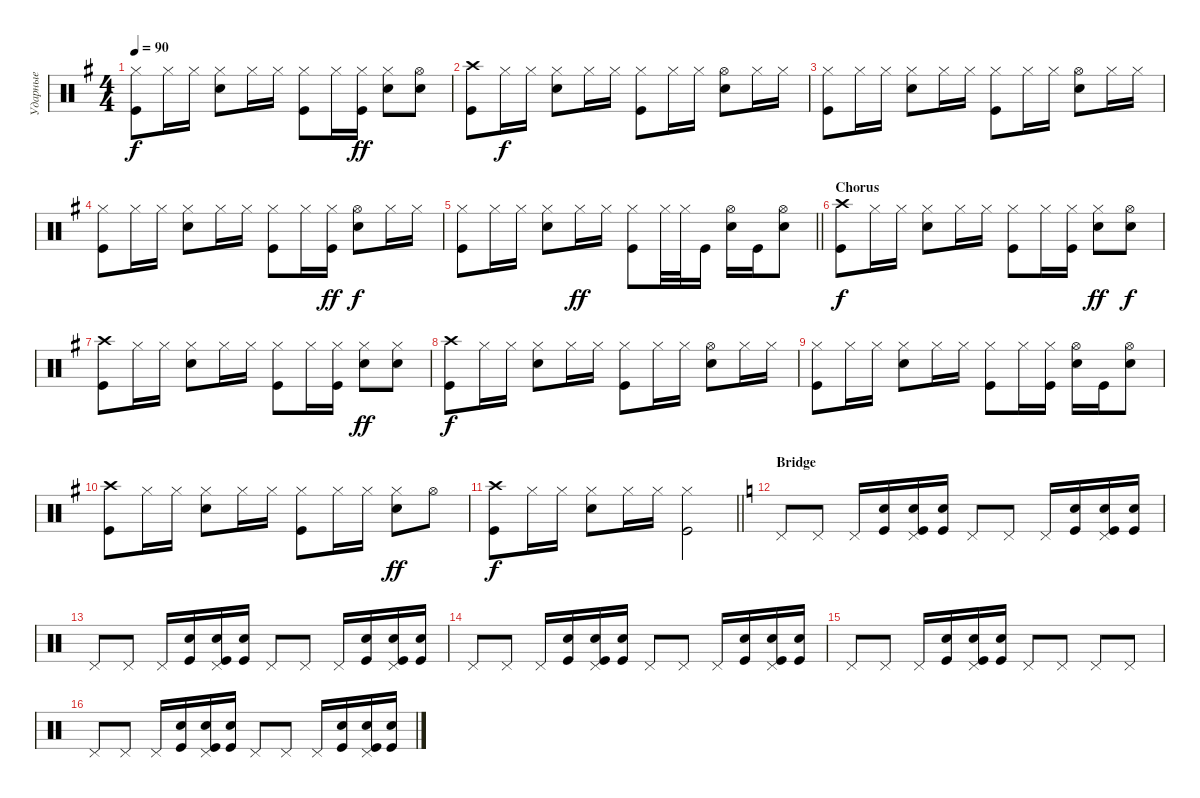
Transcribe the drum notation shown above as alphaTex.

\track ("Ударные" "Ударные") {instrument percussion}
\staff {score}
\articulation defaults
\ts (4 4)
\tempo 90
\clef neutral
\ks eminor
("Hi-Hat (closed)" "Kick (hit)").8{dy f} "Hi-Hat (closed)".16 "Hi-Hat (closed)".16 ("Hi-Hat (closed)" "Snare (hit) 2").8 "Hi-Hat (closed)".16 "Hi-Hat (closed)".16 ("Hi-Hat (closed)" "Kick (hit)").8 "Hi-Hat (closed)".16 ("Hi-Hat (closed)" "Kick (hit)").16{dy ff} ("Snare (hit) 2" "Hi-Hat (closed)").8 ("Snare (hit) 2" "Hi-Hat (open)").8 |
("Crash high (hit)" "Kick (hit)").8 "Hi-Hat (closed)".16{dy f} "Hi-Hat (closed)".16 ("Hi-Hat (closed)" "Snare (hit) 2").8 "Hi-Hat (closed)".16 "Hi-Hat (closed)".16 ("Hi-Hat (closed)" "Kick (hit)").8 "Hi-Hat (closed)".16 "Hi-Hat (closed)".16 ("Snare (hit) 2" "Hi-Hat (open)").8 "Hi-Hat (closed)".16 "Hi-Hat (closed)".16 |
("Hi-Hat (closed)" "Kick (hit)").8 "Hi-Hat (closed)".16 "Hi-Hat (closed)".16 ("Hi-Hat (closed)" "Snare (hit) 2").8 "Hi-Hat (closed)".16 "Hi-Hat (closed)".16 ("Hi-Hat (closed)" "Kick (hit)").8 "Hi-Hat (closed)".16 "Hi-Hat (closed)".16 ("Snare (hit) 2" "Hi-Hat (open)").8 "Hi-Hat (closed)".16 "Hi-Hat (closed)".16 |
("Hi-Hat (closed)" "Kick (hit)").8 "Hi-Hat (closed)".16 "Hi-Hat (closed)".16 ("Hi-Hat (closed)" "Snare (hit) 2").8 "Hi-Hat (closed)".16 "Hi-Hat (closed)".16 ("Hi-Hat (closed)" "Kick (hit)").8 "Hi-Hat (closed)".16 ("Hi-Hat (closed)" "Kick (hit)").16{dy ff} ("Snare (hit) 2" "Hi-Hat (open)").8{dy f} "Hi-Hat (closed)".16 "Hi-Hat (closed)".16 |
\barLineRight lightlight
("Hi-Hat (closed)" "Kick (hit)").8 "Hi-Hat (closed)".16 "Hi-Hat (closed)".16 ("Hi-Hat (closed)" "Snare (hit) 2").8 "Hi-Hat (closed)".16{dy ff} "Hi-Hat (closed)".16 ("Hi-Hat (closed)" "Kick (hit)").8 "Hi-Hat (closed)".32 "Hi-Hat (closed)".32 "Kick (hit)".16 ("Snare (hit) 2" "Hi-Hat (open)").16 "Kick (hit)".16 ("Snare (hit) 2" "Hi-Hat (open)").8 |
\section ("" "Chorus")
("Crash high (hit)" "Kick (hit)").8{dy f} "Hi-Hat (closed)".16 "Hi-Hat (closed)".16 ("Hi-Hat (closed)" "Snare (hit) 2").8 "Hi-Hat (closed)".16 "Hi-Hat (closed)".16 ("Hi-Hat (closed)" "Kick (hit)").8 "Hi-Hat (closed)".16 ("Hi-Hat (closed)" "Kick (hit)").16 ("Snare (hit) 2" "Hi-Hat (closed)").8{dy ff} ("Hi-Hat (open)" "Snare (hit) 2").8{dy f} |
("Crash high (hit)" "Kick (hit)").8 "Hi-Hat (closed)".16 "Hi-Hat (closed)".16 ("Hi-Hat (closed)" "Snare (hit) 2").8 "Hi-Hat (closed)".16 "Hi-Hat (closed)".16 ("Hi-Hat (closed)" "Kick (hit)").8 "Hi-Hat (closed)".16 ("Hi-Hat (closed)" "Kick (hit)").16 ("Snare (hit) 2" "Hi-Hat (closed)").8{dy ff} ("Hi-Hat (closed)" "Snare (hit) 2").8 |
("Crash high (hit)" "Kick (hit)").8{dy f} "Hi-Hat (closed)".16 "Hi-Hat (closed)".16 ("Hi-Hat (closed)" "Snare (hit) 2").8 "Hi-Hat (closed)".16 "Hi-Hat (closed)".16 ("Hi-Hat (closed)" "Kick (hit)").8 "Hi-Hat (closed)".16 "Hi-Hat (closed)".16 ("Snare (hit) 2" "Hi-Hat (open)").8 "Hi-Hat (closed)".16 "Hi-Hat (closed)".16 |
("Hi-Hat (closed)" "Kick (hit)").8 "Hi-Hat (closed)".16 "Hi-Hat (closed)".16 ("Hi-Hat (closed)" "Snare (hit) 2").8 "Hi-Hat (closed)".16 "Hi-Hat (closed)".16 ("Hi-Hat (closed)" "Kick (hit)").8 "Hi-Hat (closed)".16 ("Hi-Hat (closed)" "Kick (hit)").16 ("Snare (hit) 2" "Hi-Hat (open)").16 "Kick (hit)".16 ("Snare (hit) 2" "Hi-Hat (open)").8 |
("Crash high (hit)" "Kick (hit)").8 "Hi-Hat (closed)".16 "Hi-Hat (closed)".16 ("Hi-Hat (closed)" "Snare (hit) 2").8 "Hi-Hat (closed)".16 "Hi-Hat (closed)".16 ("Hi-Hat (closed)" "Kick (hit)").8 "Hi-Hat (closed)".16 "Hi-Hat (closed)".16 ("Snare (hit) 2" "Hi-Hat (closed)").8{dy ff} "Hi-Hat (open)".8 |
\barLineRight lightlight
("Crash high (hit)" "Kick (hit)").8{dy f} "Hi-Hat (closed)".16 "Hi-Hat (closed)".16 ("Hi-Hat (closed)" "Snare (hit) 2").8 "Hi-Hat (closed)".16 "Hi-Hat (closed)".16 ("Hi-Hat (closed)" "Kick (hit)").2 |
\section ("" "Bridge")
\ks c "Pedal Hi-Hat (hit)".8 "Pedal Hi-Hat (hit)".8 "Pedal Hi-Hat (hit)".16
("Kick (hit)" "Snare (hit) 2").16 ("Kick (hit)" "Snare (hit) 2" "Pedal Hi-Hat (hit)").16 ("Kick (hit)" "Snare (hit) 2").16 "Pedal Hi-Hat (hit)".8 "Pedal Hi-Hat (hit)".8 "Pedal Hi-Hat (hit)".16 ("Snare (hit) 2" "Kick (hit)").16 ("Snare (hit) 2" "Kick (hit)" "Pedal Hi-Hat (hit)").16 ("Snare (hit) 2" "Kick (hit)").16 |
"Pedal Hi-Hat (hit)".8 "Pedal Hi-Hat (hit)".8 "Pedal Hi-Hat (hit)".16 ("Kick (hit)" "Snare (hit) 2").16 ("Kick (hit)" "Snare (hit) 2" "Pedal Hi-Hat (hit)").16 ("Kick (hit)" "Snare (hit) 2").16 "Pedal Hi-Hat (hit)".8 "Pedal Hi-Hat (hit)".8 "Pedal Hi-Hat (hit)".16 ("Snare (hit) 2" "Kick (hit)").16 ("Snare (hit) 2" "Kick (hit)" "Pedal Hi-Hat (hit)").16 ("Snare (hit) 2" "Kick (hit)").16 |
"Pedal Hi-Hat (hit)".8 "Pedal Hi-Hat (hit)".8 "Pedal Hi-Hat (hit)".16 ("Kick (hit)" "Snare (hit) 2").16 ("Kick (hit)" "Snare (hit) 2" "Pedal Hi-Hat (hit)").16 ("Kick (hit)" "Snare (hit) 2").16 "Pedal Hi-Hat (hit)".8 "Pedal Hi-Hat (hit)".8 "Pedal Hi-Hat (hit)".16 ("Snare (hit) 2" "Kick (hit)").16 ("Snare (hit) 2" "Kick (hit)" "Pedal Hi-Hat (hit)").16 ("Snare (hit) 2" "Kick (hit)").16 |
"Pedal Hi-Hat (hit)".8 "Pedal Hi-Hat (hit)".8 "Pedal Hi-Hat (hit)".16 ("Kick (hit)" "Snare (hit) 2").16 ("Kick (hit)" "Snare (hit) 2" "Pedal Hi-Hat (hit)").16 ("Kick (hit)" "Snare (hit) 2").16 "Pedal Hi-Hat (hit)".8 "Pedal Hi-Hat (hit)".8 "Pedal Hi-Hat (hit)".8 "Pedal Hi-Hat (hit)".8 |
"Pedal Hi-Hat (hit)".8 "Pedal Hi-Hat (hit)".8 "Pedal Hi-Hat (hit)".16 ("Kick (hit)" "Snare (hit) 2").16 ("Kick (hit)" "Snare (hit) 2" "Pedal Hi-Hat (hit)").16 ("Kick (hit)" "Snare (hit) 2").16 "Pedal Hi-Hat (hit)".8 "Pedal Hi-Hat (hit)".8 "Pedal Hi-Hat (hit)".16 ("Snare (hit) 2" "Kick (hit)").16 ("Snare (hit) 2" "Kick (hit)" "Pedal Hi-Hat (hit)").16 ("Snare (hit) 2" "Kick (hit)").16
